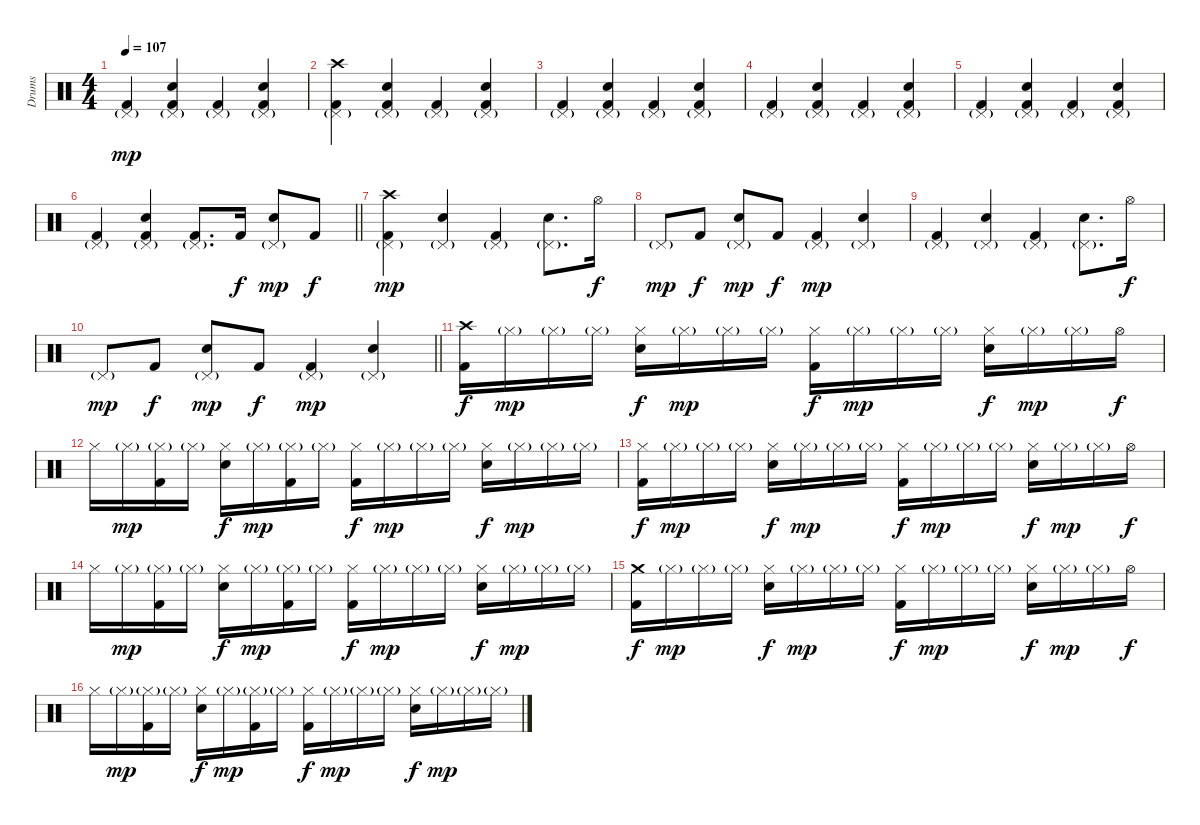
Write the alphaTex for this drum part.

\track ("Drums" "Drums") {instrument percussion}
\staff {score}
\articulation defaults
\ts (4 4)
\tempo 107
\clef neutral
\ks c
("Pedal Hi-Hat (hit)"{g} "Kick (hit) 2").4{dy mp} ("Pedal Hi-Hat (hit)"{g} "Snare (hit) 2" "Kick (hit) 2").4 ("Pedal Hi-Hat (hit)"{g} "Kick (hit) 2").4 ("Pedal Hi-Hat (hit)"{g} "Snare (hit) 2" "Kick (hit) 2").4 |
("Pedal Hi-Hat (hit)"{g} "Crash high (hit)" "Kick (hit) 2").4 ("Pedal Hi-Hat (hit)"{g} "Snare (hit) 2" "Kick (hit) 2").4 ("Pedal Hi-Hat (hit)"{g} "Kick (hit) 2").4 ("Pedal Hi-Hat (hit)"{g} "Snare (hit) 2" "Kick (hit) 2").4 |
("Pedal Hi-Hat (hit)"{g} "Kick (hit) 2").4 ("Pedal Hi-Hat (hit)"{g} "Snare (hit) 2" "Kick (hit) 2").4 ("Pedal Hi-Hat (hit)"{g} "Kick (hit) 2").4 ("Pedal Hi-Hat (hit)"{g} "Snare (hit) 2" "Kick (hit) 2").4 |
("Pedal Hi-Hat (hit)"{g} "Kick (hit) 2").4 ("Pedal Hi-Hat (hit)"{g} "Snare (hit) 2" "Kick (hit) 2").4 ("Pedal Hi-Hat (hit)"{g} "Kick (hit) 2").4 ("Pedal Hi-Hat (hit)"{g} "Snare (hit) 2" "Kick (hit) 2").4 |
("Pedal Hi-Hat (hit)"{g} "Kick (hit) 2").4 ("Pedal Hi-Hat (hit)"{g} "Snare (hit) 2" "Kick (hit) 2").4 ("Pedal Hi-Hat (hit)"{g} "Kick (hit) 2").4 ("Pedal Hi-Hat (hit)"{g} "Snare (hit) 2" "Kick (hit) 2").4 |
\barLineRight lightlight
("Pedal Hi-Hat (hit)"{g} "Kick (hit) 2").4 ("Pedal Hi-Hat (hit)"{g} "Snare (hit) 2" "Kick (hit) 2").4 ("Pedal Hi-Hat (hit)"{g} "Kick (hit) 2").8{d} "Kick (hit) 2".16{dy f} ("Pedal Hi-Hat (hit)"{g} "Snare (hit) 2").8{dy mp} "Kick (hit) 2".8{dy f} |
("Pedal Hi-Hat (hit)"{g} "Crash high (hit)" "Kick (hit) 2").4{dy mp} ("Pedal Hi-Hat (hit)"{g} "Snare (hit) 2").4 ("Pedal Hi-Hat (hit)"{g} "Kick (hit) 2").4 ("Pedal Hi-Hat (hit)"{g} "Snare (hit) 2").8{d} "Hi-Hat (open)".16{dy f} |
"Pedal Hi-Hat (hit)"{g}.8{dy mp} "Kick (hit) 2".8{dy f} ("Pedal Hi-Hat (hit)"{g} "Snare (hit) 2").8{dy mp} "Kick (hit) 2".8{dy f} ("Pedal Hi-Hat (hit)"{g} "Kick (hit) 2").4{dy mp} ("Pedal Hi-Hat (hit)"{g} "Snare (hit) 2").4 |
("Pedal Hi-Hat (hit)"{g} "Kick (hit) 2").4 ("Pedal Hi-Hat (hit)"{g} "Snare (hit) 2").4 ("Pedal Hi-Hat (hit)"{g} "Kick (hit) 2").4 ("Pedal Hi-Hat (hit)"{g} "Snare (hit) 2").8{d} "Hi-Hat (open)".16{dy f} |
\barLineRight lightlight "Pedal Hi-Hat (hit)"{g}.8{dy mp} "Kick (hit) 2".8{dy f}
("Pedal Hi-Hat (hit)"{g} "Snare (hit) 2").8{dy mp} "Kick (hit) 2".8{dy f} ("Pedal Hi-Hat (hit)"{g} "Kick (hit) 2").4{dy mp} ("Pedal Hi-Hat (hit)"{g} "Snare (hit) 2").4 |
("Crash high (hit)" "Kick (hit) 2").16{dy f} "Hi-Hat (closed)"{g}.16{dy mp} "Hi-Hat (closed)"{g}.16 "Hi-Hat (closed)"{g}.16 ("Hi-Hat (closed)" "Snare (hit) 2").16{dy f} "Hi-Hat (closed)"{g}.16{dy mp} "Hi-Hat (closed)"{g}.16 "Hi-Hat (closed)"{g}.16 ("Hi-Hat (closed)" "Kick (hit) 2").16{dy f} "Hi-Hat (closed)"{g}.16{dy mp} "Hi-Hat (closed)"{g}.16 "Hi-Hat (closed)"{g}.16 ("Hi-Hat (closed)" "Snare (hit) 2").16{dy f} "Hi-Hat (closed)"{g}.16{dy mp} "Hi-Hat (closed)"{g}.16 "Hi-Hat (open)".16{dy f} |
"Hi-Hat (closed)".16 "Hi-Hat (closed)"{g}.16{dy mp} ("Hi-Hat (closed)"{g} "Kick (hit) 2").16 "Hi-Hat (closed)"{g}.16 ("Hi-Hat (closed)" "Snare (hit) 2").16{dy f} "Hi-Hat (closed)"{g}.16{dy mp} ("Hi-Hat (closed)"{g} "Kick (hit) 2").16 "Hi-Hat (closed)"{g}.16 ("Hi-Hat (closed)" "Kick (hit) 2").16{dy f} "Hi-Hat (closed)"{g}.16{dy mp} "Hi-Hat (closed)"{g}.16 "Hi-Hat (closed)"{g}.16 ("Hi-Hat (closed)" "Snare (hit) 2").16{dy f} "Hi-Hat (closed)"{g}.16{dy mp} "Hi-Hat (closed)"{g}.16 "Hi-Hat (closed)"{g}.16 |
("Hi-Hat (closed)" "Kick (hit) 2").16{dy f} "Hi-Hat (closed)"{g}.16{dy mp} "Hi-Hat (closed)"{g}.16 "Hi-Hat (closed)"{g}.16 ("Hi-Hat (closed)" "Snare (hit) 2").16{dy f} "Hi-Hat (closed)"{g}.16{dy mp} "Hi-Hat (closed)"{g}.16 "Hi-Hat (closed)"{g}.16 ("Hi-Hat (closed)" "Kick (hit) 2").16{dy f} "Hi-Hat (closed)"{g}.16{dy mp} "Hi-Hat (closed)"{g}.16 "Hi-Hat (closed)"{g}.16 ("Hi-Hat (closed)" "Snare (hit) 2").16{dy f} "Hi-Hat (closed)"{g}.16{dy mp} "Hi-Hat (closed)"{g}.16 "Hi-Hat (open)".16{dy f} |
"Hi-Hat (closed)".16 "Hi-Hat (closed)"{g}.16{dy mp} ("Hi-Hat (closed)"{g} "Kick (hit) 2").16 "Hi-Hat (closed)"{g}.16 ("Hi-Hat (closed)" "Snare (hit) 2").16{dy f} "Hi-Hat (closed)"{g}.16{dy mp} ("Hi-Hat (closed)"{g} "Kick (hit) 2").16 "Hi-Hat (closed)"{g}.16 ("Hi-Hat (closed)" "Kick (hit) 2").16{dy f} "Hi-Hat (closed)"{g}.16{dy mp} "Hi-Hat (closed)"{g}.16 "Hi-Hat (closed)"{g}.16 ("Hi-Hat (closed)" "Snare (hit) 2").16{dy f} "Hi-Hat (closed)"{g}.16{dy mp} "Hi-Hat (closed)"{g}.16 "Hi-Hat (closed)"{g}.16 |
("Crash medium (hit)" "Kick (hit) 2").16{dy f} "Hi-Hat (closed)"{g}.16{dy mp} "Hi-Hat (closed)"{g}.16 "Hi-Hat (closed)"{g}.16 ("Hi-Hat (closed)" "Snare (hit) 2").16{dy f} "Hi-Hat (closed)"{g}.16{dy mp} "Hi-Hat (closed)"{g}.16 "Hi-Hat (closed)"{g}.16 ("Hi-Hat (closed)" "Kick (hit) 2").16{dy f} "Hi-Hat (closed)"{g}.16{dy mp} "Hi-Hat (closed)"{g}.16 "Hi-Hat (closed)"{g}.16 ("Hi-Hat (closed)" "Snare (hit) 2").16{dy f} "Hi-Hat (closed)"{g}.16{dy mp} "Hi-Hat (closed)"{g}.16 "Hi-Hat (open)".16{dy f} |
"Hi-Hat (closed)".16 "Hi-Hat (closed)"{g}.16{dy mp} ("Hi-Hat (closed)"{g} "Kick (hit) 2").16 "Hi-Hat (closed)"{g}.16 ("Hi-Hat (closed)" "Snare (hit) 2").16{dy f} "Hi-Hat (closed)"{g}.16{dy mp} ("Hi-Hat (closed)"{g} "Kick (hit) 2").16 "Hi-Hat (closed)"{g}.16 ("Hi-Hat (closed)" "Kick (hit) 2").16{dy f} "Hi-Hat (closed)"{g}.16{dy mp} "Hi-Hat (closed)"{g}.16 "Hi-Hat (closed)"{g}.16 ("Hi-Hat (closed)" "Snare (hit) 2").16{dy f} "Hi-Hat (closed)"{g}.16{dy mp} "Hi-Hat (closed)"{g}.16 "Hi-Hat (closed)"{g}.16
